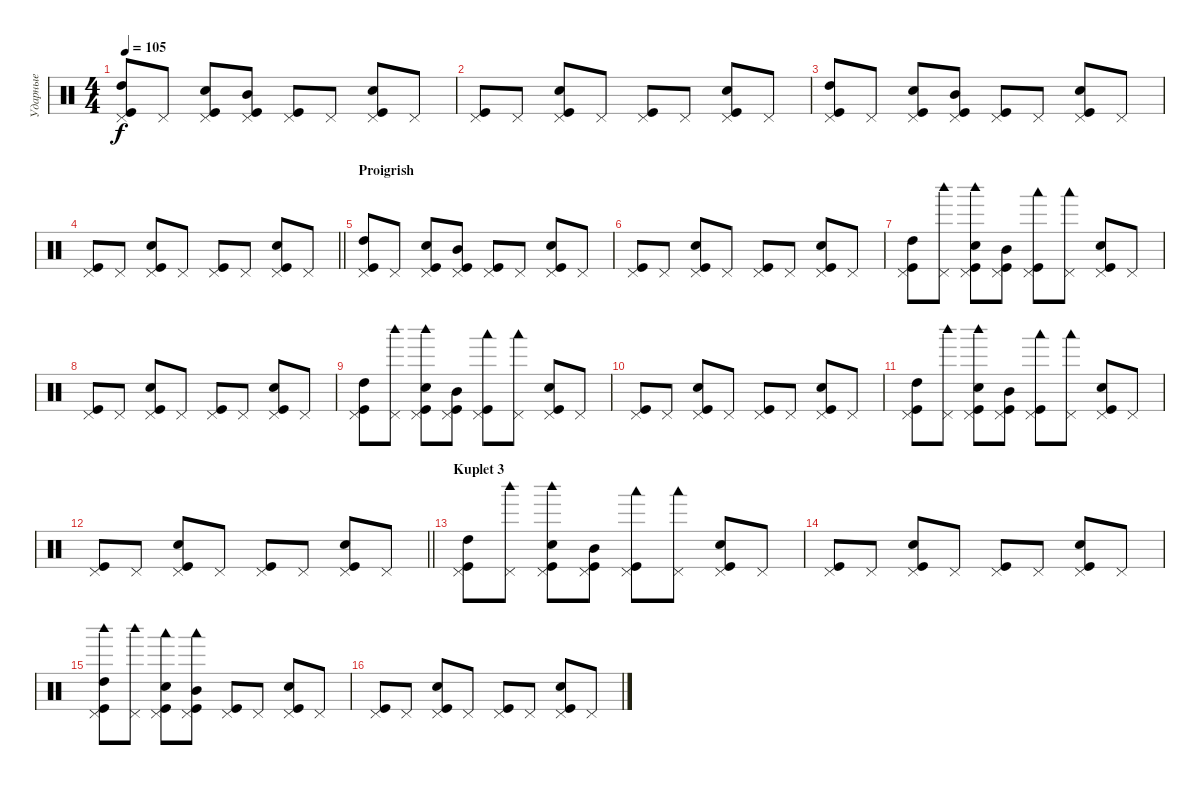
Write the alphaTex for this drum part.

\track ("Ударные" "Ударные") {instrument percussion}
\staff {score}
\articulation defaults
\ts (4 4)
\tempo 105
\clef neutral
\ks c
("Pedal Hi-Hat (hit)" "Kick (hit)" "High Tom (hit)").8{dy f} "Pedal Hi-Hat (hit)".8 ("Pedal Hi-Hat (hit)" "Kick (hit)" "Snare (hit) 2").8 ("Pedal Hi-Hat (hit)" "Kick (hit)" "Mid Tom (hit)").8 ("Pedal Hi-Hat (hit)" "Kick (hit)").8 "Pedal Hi-Hat (hit)".8 ("Pedal Hi-Hat (hit)" "Kick (hit)" "Snare (hit) 2").8 "Pedal Hi-Hat (hit)".8 |
("Pedal Hi-Hat (hit)" "Kick (hit)").8 "Pedal Hi-Hat (hit)".8 ("Pedal Hi-Hat (hit)" "Kick (hit)" "Snare (hit) 2").8 "Pedal Hi-Hat (hit)".8 ("Pedal Hi-Hat (hit)" "Kick (hit)").8 "Pedal Hi-Hat (hit)".8 ("Pedal Hi-Hat (hit)" "Kick (hit)" "Snare (hit) 2").8 "Pedal Hi-Hat (hit)".8 |
("Pedal Hi-Hat (hit)" "Kick (hit)" "High Tom (hit)").8 "Pedal Hi-Hat (hit)".8 ("Pedal Hi-Hat (hit)" "Kick (hit)" "Snare (hit) 2").8 ("Pedal Hi-Hat (hit)" "Kick (hit)" "Mid Tom (hit)").8 ("Pedal Hi-Hat (hit)" "Kick (hit)").8 "Pedal Hi-Hat (hit)".8 ("Pedal Hi-Hat (hit)" "Kick (hit)" "Snare (hit) 2").8 "Pedal Hi-Hat (hit)".8 |
\barLineRight lightlight
("Pedal Hi-Hat (hit)" "Kick (hit)").8 "Pedal Hi-Hat (hit)".8 ("Pedal Hi-Hat (hit)" "Kick (hit)" "Snare (hit) 2").8 "Pedal Hi-Hat (hit)".8 ("Pedal Hi-Hat (hit)" "Kick (hit)").8 "Pedal Hi-Hat (hit)".8 ("Pedal Hi-Hat (hit)" "Kick (hit)" "Snare (hit) 2").8 "Pedal Hi-Hat (hit)".8 |
\section ("" "Proigrish")
("Pedal Hi-Hat (hit)" "Kick (hit)" "High Tom (hit)").8 "Pedal Hi-Hat (hit)".8 ("Pedal Hi-Hat (hit)" "Kick (hit)" "Snare (hit) 2").8 ("Pedal Hi-Hat (hit)" "Kick (hit)" "Mid Tom (hit)").8 ("Pedal Hi-Hat (hit)" "Kick (hit)").8 "Pedal Hi-Hat (hit)".8 ("Pedal Hi-Hat (hit)" "Kick (hit)" "Snare (hit) 2").8 "Pedal Hi-Hat (hit)".8 |
("Pedal Hi-Hat (hit)" "Kick (hit)").8 "Pedal Hi-Hat (hit)".8 ("Pedal Hi-Hat (hit)" "Kick (hit)" "Snare (hit) 2").8 "Pedal Hi-Hat (hit)".8 ("Pedal Hi-Hat (hit)" "Kick (hit)").8 "Pedal Hi-Hat (hit)".8 ("Pedal Hi-Hat (hit)" "Kick (hit)" "Snare (hit) 2").8 "Pedal Hi-Hat (hit)".8 |
("Pedal Hi-Hat (hit)" "Kick (hit)" "High Tom (hit)").8 ("Pedal Hi-Hat (hit)" "Woodblock high (hit)").8 ("Pedal Hi-Hat (hit)" "Kick (hit)" "Snare (hit) 2" "Woodblock high (hit)").8 ("Pedal Hi-Hat (hit)" "Kick (hit)" "Mid Tom (hit)").8 ("Pedal Hi-Hat (hit)" "Kick (hit)" "Woodblock low (hit)").8 ("Pedal Hi-Hat (hit)" "Woodblock low (hit)").8 ("Pedal Hi-Hat (hit)" "Kick (hit)" "Snare (hit) 2").8 "Pedal Hi-Hat (hit)".8 |
("Pedal Hi-Hat (hit)" "Kick (hit)").8 "Pedal Hi-Hat (hit)".8 ("Pedal Hi-Hat (hit)" "Kick (hit)" "Snare (hit) 2").8 "Pedal Hi-Hat (hit)".8 ("Pedal Hi-Hat (hit)" "Kick (hit)").8 "Pedal Hi-Hat (hit)".8 ("Pedal Hi-Hat (hit)" "Kick (hit)" "Snare (hit) 2").8 "Pedal Hi-Hat (hit)".8 |
("Pedal Hi-Hat (hit)" "Kick (hit)" "High Tom (hit)").8 ("Pedal Hi-Hat (hit)" "Woodblock high (hit)").8 ("Pedal Hi-Hat (hit)" "Kick (hit)" "Snare (hit) 2" "Woodblock high (hit)").8 ("Pedal Hi-Hat (hit)" "Kick (hit)" "Mid Tom (hit)").8 ("Pedal Hi-Hat (hit)" "Kick (hit)" "Woodblock low (hit)").8 ("Pedal Hi-Hat (hit)" "Woodblock low (hit)").8 ("Pedal Hi-Hat (hit)" "Kick (hit)" "Snare (hit) 2").8 "Pedal Hi-Hat (hit)".8 |
("Pedal Hi-Hat (hit)" "Kick (hit)").8 "Pedal Hi-Hat (hit)".8 ("Pedal Hi-Hat (hit)" "Kick (hit)" "Snare (hit) 2").8 "Pedal Hi-Hat (hit)".8 ("Pedal Hi-Hat (hit)" "Kick (hit)").8 "Pedal Hi-Hat (hit)".8 ("Pedal Hi-Hat (hit)" "Kick (hit)" "Snare (hit) 2").8 "Pedal Hi-Hat (hit)".8 |
("Pedal Hi-Hat (hit)" "Kick (hit)" "High Tom (hit)").8 ("Pedal Hi-Hat (hit)" "Woodblock high (hit)").8 ("Pedal Hi-Hat (hit)" "Kick (hit)" "Snare (hit) 2" "Woodblock high (hit)").8 ("Pedal Hi-Hat (hit)" "Kick (hit)" "Mid Tom (hit)").8 ("Pedal Hi-Hat (hit)" "Kick (hit)" "Woodblock low (hit)").8 ("Pedal Hi-Hat (hit)" "Woodblock low (hit)").8 ("Pedal Hi-Hat (hit)" "Kick (hit)" "Snare (hit) 2").8 "Pedal Hi-Hat (hit)".8 |
\barLineRight lightlight
("Pedal Hi-Hat (hit)" "Kick (hit)").8 "Pedal Hi-Hat (hit)".8 ("Pedal Hi-Hat (hit)" "Kick (hit)" "Snare (hit) 2").8 "Pedal Hi-Hat (hit)".8 ("Pedal Hi-Hat (hit)" "Kick (hit)").8 "Pedal Hi-Hat (hit)".8 ("Pedal Hi-Hat (hit)" "Kick (hit)" "Snare (hit) 2").8 "Pedal Hi-Hat (hit)".8 |
\section ("" "Kuplet 3")
("Pedal Hi-Hat (hit)" "Kick (hit)" "High Tom (hit)").8 ("Pedal Hi-Hat (hit)" "Woodblock high (hit)").8 ("Pedal Hi-Hat (hit)" "Kick (hit)" "Snare (hit) 2" "Woodblock high (hit)").8 ("Pedal Hi-Hat (hit)" "Kick (hit)" "Mid Tom (hit)").8 ("Pedal Hi-Hat (hit)" "Kick (hit)" "Woodblock low (hit)").8 ("Pedal Hi-Hat (hit)" "Woodblock low (hit)").8 ("Pedal Hi-Hat (hit)" "Kick (hit)" "Snare (hit) 2").8 "Pedal Hi-Hat (hit)".8 |
("Pedal Hi-Hat (hit)" "Kick (hit)").8 "Pedal Hi-Hat (hit)".8 ("Pedal Hi-Hat (hit)" "Kick (hit)" "Snare (hit) 2").8 "Pedal Hi-Hat (hit)".8 ("Pedal Hi-Hat (hit)" "Kick (hit)").8 "Pedal Hi-Hat (hit)".8 ("Pedal Hi-Hat (hit)" "Kick (hit)" "Snare (hit) 2").8 "Pedal Hi-Hat (hit)".8 |
("Pedal Hi-Hat (hit)" "Kick (hit)" "High Tom (hit)" "Woodblock high (hit)").8 ("Pedal Hi-Hat (hit)" "Woodblock high (hit)").8 ("Pedal Hi-Hat (hit)" "Kick (hit)" "Snare (hit) 2" "Woodblock low (hit)").8 ("Pedal Hi-Hat (hit)" "Kick (hit)" "Mid Tom (hit)" "Woodblock low (hit)").8 ("Pedal Hi-Hat (hit)" "Kick (hit)").8 "Pedal Hi-Hat (hit)".8 ("Pedal Hi-Hat (hit)" "Kick (hit)" "Snare (hit) 2").8 "Pedal Hi-Hat (hit)".8 |
("Pedal Hi-Hat (hit)" "Kick (hit)").8 "Pedal Hi-Hat (hit)".8 ("Pedal Hi-Hat (hit)" "Kick (hit)" "Snare (hit) 2").8 "Pedal Hi-Hat (hit)".8 ("Pedal Hi-Hat (hit)" "Kick (hit)").8 "Pedal Hi-Hat (hit)".8 ("Pedal Hi-Hat (hit)" "Kick (hit)" "Snare (hit) 2").8 "Pedal Hi-Hat (hit)".8
